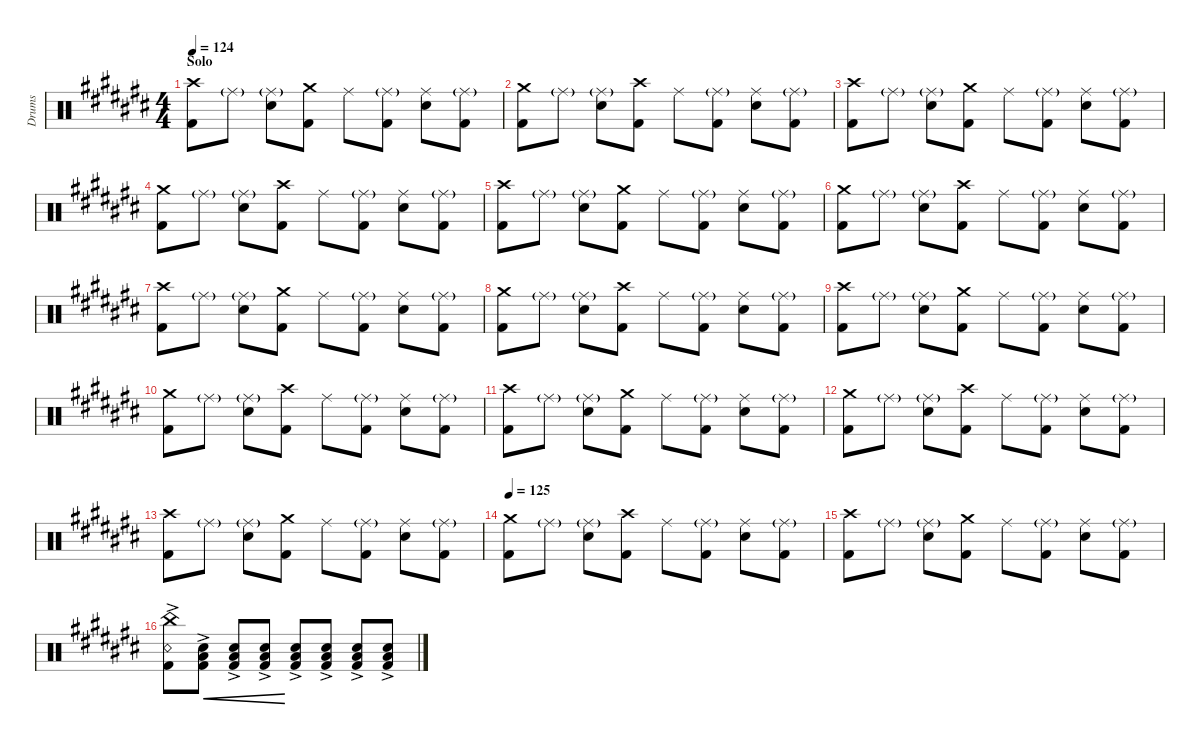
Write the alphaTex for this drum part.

\hideDynamics
\bracketExtendMode nobrackets
\otherSystemsTrackNameOrientation horizontal
\track ("Drumkit" "Drums") {defaultSystemsLayout 4 instrument percussion}
\staff {score}
\articulation defaults
\ts (4 4)
\section ("" "Solo")
\tempo 124
\clef neutral
\ks c#
("Kick (hit) 2"{acc forcenatural} "Crash high (hit)"{acc forcenatural}).8{dy ff beam Down} "Ride (middle)"{g acc forcenatural}.8{beam Down} ("Ride (middle)"{g acc forcenatural} "Snare (hit) 2"{acc forcenatural}).8{beam Down} ("Kick (hit) 2"{acc forcenatural} "Crash medium (hit)"{acc forcenatural}).8{beam Down} "Ride (middle)"{acc forcenatural}.8{beam Down} ("Ride (middle)"{g acc forcenatural} "Kick (hit) 2"{acc forcenatural}).8{beam Down} ("Ride (middle)"{acc forcenatural} "Snare (hit) 2"{acc forcenatural}).8{beam Down} ("Ride (middle)"{g acc forcenatural} "Kick (hit) 2"{acc forcenatural}).8{beam Down} |
("Crash medium (hit)"{acc forcenatural} "Kick (hit) 2"{acc forcenatural}).8{beam Down} "Ride (middle)"{g acc forcenatural}.8{beam Down} ("Ride (middle)"{g acc forcenatural} "Snare (hit) 2"{acc forcenatural}).8{beam Down} ("Crash high (hit)"{acc forcenatural} "Kick (hit) 2"{acc forcenatural}).8{beam Down} "Ride (middle)"{acc forcenatural}.8{beam Down} ("Ride (middle)"{g acc forcenatural} "Kick (hit) 2"{acc forcenatural}).8{beam Down} ("Ride (middle)"{acc forcenatural} "Snare (hit) 2"{acc forcenatural}).8{beam Down} ("Ride (middle)"{g acc forcenatural} "Kick (hit) 2"{acc forcenatural}).8{beam Down} |
("Kick (hit) 2"{acc forcenatural} "Crash high (hit)"{acc forcenatural}).8{beam Down} "Ride (middle)"{g acc forcenatural}.8{beam Down} ("Ride (middle)"{g acc forcenatural} "Snare (hit) 2"{acc forcenatural}).8{beam Down} ("Kick (hit) 2"{acc forcenatural} "Crash medium (hit)"{acc forcenatural}).8{beam Down} "Ride (middle)"{acc forcenatural}.8{beam Down} ("Ride (middle)"{g acc forcenatural} "Kick (hit) 2"{acc forcenatural}).8{beam Down} ("Ride (middle)"{acc forcenatural} "Snare (hit) 2"{acc forcenatural}).8{beam Down} ("Ride (middle)"{g acc forcenatural} "Kick (hit) 2"{acc forcenatural}).8{beam Down} |
("Crash medium (hit)"{acc forcenatural} "Kick (hit) 2"{acc forcenatural}).8{beam Down} "Ride (middle)"{g acc forcenatural}.8{beam Down} ("Ride (middle)"{g acc forcenatural} "Snare (hit) 2"{acc forcenatural}).8{beam Down} ("Crash high (hit)"{acc forcenatural} "Kick (hit) 2"{acc forcenatural}).8{beam Down} "Ride (middle)"{acc forcenatural}.8{beam Down} ("Ride (middle)"{g acc forcenatural} "Kick (hit) 2"{acc forcenatural}).8{beam Down} ("Ride (middle)"{acc forcenatural} "Snare (hit) 2"{acc forcenatural}).8{beam Down} ("Ride (middle)"{g acc forcenatural} "Kick (hit) 2"{acc forcenatural}).8{beam Down} |
("Kick (hit) 2"{acc forcenatural} "Crash high (hit)"{acc forcenatural}).8{beam Down} "Ride (middle)"{g acc forcenatural}.8{beam Down} ("Ride (middle)"{g acc forcenatural} "Snare (hit) 2"{acc forcenatural}).8{beam Down} ("Kick (hit) 2"{acc forcenatural} "Crash medium (hit)"{acc forcenatural}).8{beam Down} "Ride (middle)"{acc forcenatural}.8{beam Down} ("Ride (middle)"{g acc forcenatural} "Kick (hit) 2"{acc forcenatural}).8{beam Down} ("Ride (middle)"{acc forcenatural} "Snare (hit) 2"{acc forcenatural}).8{beam Down} ("Ride (middle)"{g acc forcenatural} "Kick (hit) 2"{acc forcenatural}).8{beam Down} |
("Crash medium (hit)"{acc forcenatural} "Kick (hit) 2"{acc forcenatural}).8{beam Down} "Ride (middle)"{g acc forcenatural}.8{beam Down} ("Ride (middle)"{g acc forcenatural} "Snare (hit) 2"{acc forcenatural}).8{beam Down} ("Crash high (hit)"{acc forcenatural} "Kick (hit) 2"{acc forcenatural}).8{beam Down} "Ride (middle)"{acc forcenatural}.8{beam Down} ("Ride (middle)"{g acc forcenatural} "Kick (hit) 2"{acc forcenatural}).8{beam Down} ("Ride (middle)"{acc forcenatural} "Snare (hit) 2"{acc forcenatural}).8{beam Down} ("Ride (middle)"{g acc forcenatural} "Kick (hit) 2"{acc forcenatural}).8{beam Down} |
("Kick (hit) 2"{acc forcenatural} "Crash high (hit)"{acc forcenatural}).8{beam Down} "Ride (middle)"{g acc forcenatural}.8{beam Down} ("Ride (middle)"{g acc forcenatural} "Snare (hit) 2"{acc forcenatural}).8{beam Down} ("Kick (hit) 2"{acc forcenatural} "Crash medium (hit)"{acc forcenatural}).8{beam Down} "Ride (middle)"{acc forcenatural}.8{beam Down} ("Ride (middle)"{g acc forcenatural} "Kick (hit) 2"{acc forcenatural}).8{beam Down} ("Ride (middle)"{acc forcenatural} "Snare (hit) 2"{acc forcenatural}).8{beam Down} ("Ride (middle)"{g acc forcenatural} "Kick (hit) 2"{acc forcenatural}).8{beam Down} |
("Crash medium (hit)"{acc forcenatural} "Kick (hit) 2"{acc forcenatural}).8{beam Down} "Ride (middle)"{g acc forcenatural}.8{beam Down} ("Ride (middle)"{g acc forcenatural} "Snare (hit) 2"{acc forcenatural}).8{beam Down} ("Crash high (hit)"{acc forcenatural} "Kick (hit) 2"{acc forcenatural}).8{beam Down} "Ride (middle)"{acc forcenatural}.8{beam Down} ("Ride (middle)"{g acc forcenatural} "Kick (hit) 2"{acc forcenatural}).8{beam Down} ("Ride (middle)"{acc forcenatural} "Snare (hit) 2"{acc forcenatural}).8{beam Down} ("Ride (middle)"{g acc forcenatural} "Kick (hit) 2"{acc forcenatural}).8{beam Down} |
("Kick (hit) 2"{acc forcenatural} "Crash high (hit)"{acc forcenatural}).8{beam Down} "Ride (middle)"{g acc forcenatural}.8{beam Down} ("Ride (middle)"{g acc forcenatural} "Snare (hit) 2"{acc forcenatural}).8{beam Down} ("Kick (hit) 2"{acc forcenatural} "Crash medium (hit)"{acc forcenatural}).8{beam Down} "Ride (middle)"{acc forcenatural}.8{beam Down} ("Ride (middle)"{g acc forcenatural} "Kick (hit) 2"{acc forcenatural}).8{beam Down} ("Ride (middle)"{acc forcenatural} "Snare (hit) 2"{acc forcenatural}).8{beam Down} ("Ride (middle)"{g acc forcenatural} "Kick (hit) 2"{acc forcenatural}).8{beam Down} |
("Crash medium (hit)"{acc forcenatural} "Kick (hit) 2"{acc forcenatural}).8{beam Down} "Ride (middle)"{g acc forcenatural}.8{beam Down} ("Ride (middle)"{g acc forcenatural} "Snare (hit) 2"{acc forcenatural}).8{beam Down} ("Crash high (hit)"{acc forcenatural} "Kick (hit) 2"{acc forcenatural}).8{beam Down} "Ride (middle)"{acc forcenatural}.8{beam Down} ("Ride (middle)"{g acc forcenatural} "Kick (hit) 2"{acc forcenatural}).8{beam Down} ("Ride (middle)"{acc forcenatural} "Snare (hit) 2"{acc forcenatural}).8{beam Down} ("Ride (middle)"{g acc forcenatural} "Kick (hit) 2"{acc forcenatural}).8{beam Down} |
("Kick (hit) 2"{acc forcenatural} "Crash high (hit)"{acc forcenatural}).8{beam Down} "Ride (middle)"{g acc forcenatural}.8{beam Down} ("Ride (middle)"{g acc forcenatural} "Snare (hit) 2"{acc forcenatural}).8{beam Down} ("Kick (hit) 2"{acc forcenatural} "Crash medium (hit)"{acc forcenatural}).8{beam Down} "Ride (middle)"{acc forcenatural}.8{beam Down} ("Ride (middle)"{g acc forcenatural} "Kick (hit) 2"{acc forcenatural}).8{beam Down} ("Ride (middle)"{acc forcenatural} "Snare (hit) 2"{acc forcenatural}).8{beam Down} ("Ride (middle)"{g acc forcenatural} "Kick (hit) 2"{acc forcenatural}).8{beam Down} |
("Crash medium (hit)"{acc forcenatural} "Kick (hit) 2"{acc forcenatural}).8{beam Down} "Ride (middle)"{g acc forcenatural}.8{beam Down} ("Ride (middle)"{g acc forcenatural} "Snare (hit) 2"{acc forcenatural}).8{beam Down} ("Crash high (hit)"{acc forcenatural} "Kick (hit) 2"{acc forcenatural}).8{beam Down} "Ride (middle)"{acc forcenatural}.8{beam Down} ("Ride (middle)"{g acc forcenatural} "Kick (hit) 2"{acc forcenatural}).8{beam Down} ("Ride (middle)"{acc forcenatural} "Snare (hit) 2"{acc forcenatural}).8{beam Down} ("Ride (middle)"{g acc forcenatural} "Kick (hit) 2"{acc forcenatural}).8{beam Down} |
("Kick (hit) 2"{acc forcenatural} "Crash high (hit)"{acc forcenatural}).8{beam Down} "Ride (middle)"{g acc forcenatural}.8{beam Down} ("Ride (middle)"{g acc forcenatural} "Snare (hit) 2"{acc forcenatural}).8{beam Down} ("Kick (hit) 2"{acc forcenatural} "Crash medium (hit)"{acc forcenatural}).8{beam Down} "Ride (middle)"{acc forcenatural}.8{beam Down} ("Ride (middle)"{g acc forcenatural} "Kick (hit) 2"{acc forcenatural}).8{beam Down} ("Ride (middle)"{acc forcenatural} "Snare (hit) 2"{acc forcenatural}).8{beam Down} ("Ride (middle)"{g acc forcenatural} "Kick (hit) 2"{acc forcenatural}).8{beam Down} |
\tempo 125
("Crash medium (hit)"{acc forcenatural} "Kick (hit) 2"{acc forcenatural}).8{beam Down} "Ride (middle)"{g acc forcenatural}.8{beam Down} ("Ride (middle)"{g acc forcenatural} "Snare (hit) 2"{acc forcenatural}).8{beam Down} ("Crash high (hit)"{acc forcenatural} "Kick (hit) 2"{acc forcenatural}).8{beam Down} "Ride (middle)"{acc forcenatural}.8{beam Down} ("Ride (middle)"{g acc forcenatural} "Kick (hit) 2"{acc forcenatural}).8{beam Down} ("Ride (middle)"{acc forcenatural} "Snare (hit) 2"{acc forcenatural}).8{beam Down} ("Ride (middle)"{g acc forcenatural} "Kick (hit) 2"{acc forcenatural}).8{beam Down} |
("Kick (hit) 2"{acc forcenatural} "Crash high (hit)"{acc forcenatural}).8{beam Down} "Ride (middle)"{g acc forcenatural}.8{beam Down} ("Ride (middle)"{g acc forcenatural} "Snare (hit) 2"{acc forcenatural}).8{beam Down} ("Kick (hit) 2"{acc forcenatural} "Crash medium (hit)"{acc forcenatural}).8{beam Down} "Ride (middle)"{acc forcenatural}.8{beam Down} ("Ride (middle)"{g acc forcenatural} "Kick (hit) 2"{acc forcenatural}).8{beam Down} ("Ride (middle)"{acc forcenatural} "Snare (hit) 2"{acc forcenatural}).8{beam Down} ("Ride (middle)"{g acc forcenatural} "Kick (hit) 2"{acc forcenatural}).8{beam Down} |
("Snare (rim shot)"{ac acc forcenatural} "China (hit)"{acc forcenatural} "Kick (hit) 2"{acc forcenatural}).8{beam Down} ("Low Tom (hit)"{ac acc forcenatural} "Snare (hit) 2"{acc forcenatural} "Kick (hit) 2"{acc forcenatural}).8{cre dy p beam Down} ("Low Tom (hit)"{ac acc forcenatural} "Snare (hit) 2"{acc forcenatural} "Kick (hit) 2"{acc forcenatural}).8{cre beam Up} ("Low Tom (hit)"{ac acc forcenatural} "Snare (hit) 2"{acc forcenatural} "Kick (hit) 2"{acc forcenatural}).8{cre beam Up} ("Low Tom (hit)"{ac acc forcenatural} "Snare (hit) 2"{acc forcenatural} "Kick (hit) 2"{acc forcenatural}).8{dy mp beam Up} ("Low Tom (hit)"{ac acc forcenatural} "Snare (hit) 2"{acc forcenatural} "Kick (hit) 2"{acc forcenatural}).8{beam Up} ("Low Tom (hit)"{ac acc forcenatural} "Snare (hit) 2"{acc forcenatural} "Kick (hit) 2"{acc forcenatural}).8{dy mf beam Up} ("Low Tom (hit)"{ac acc forcenatural} "Snare (hit) 2"{acc forcenatural} "Kick (hit) 2"{acc forcenatural}).8{beam Up}
